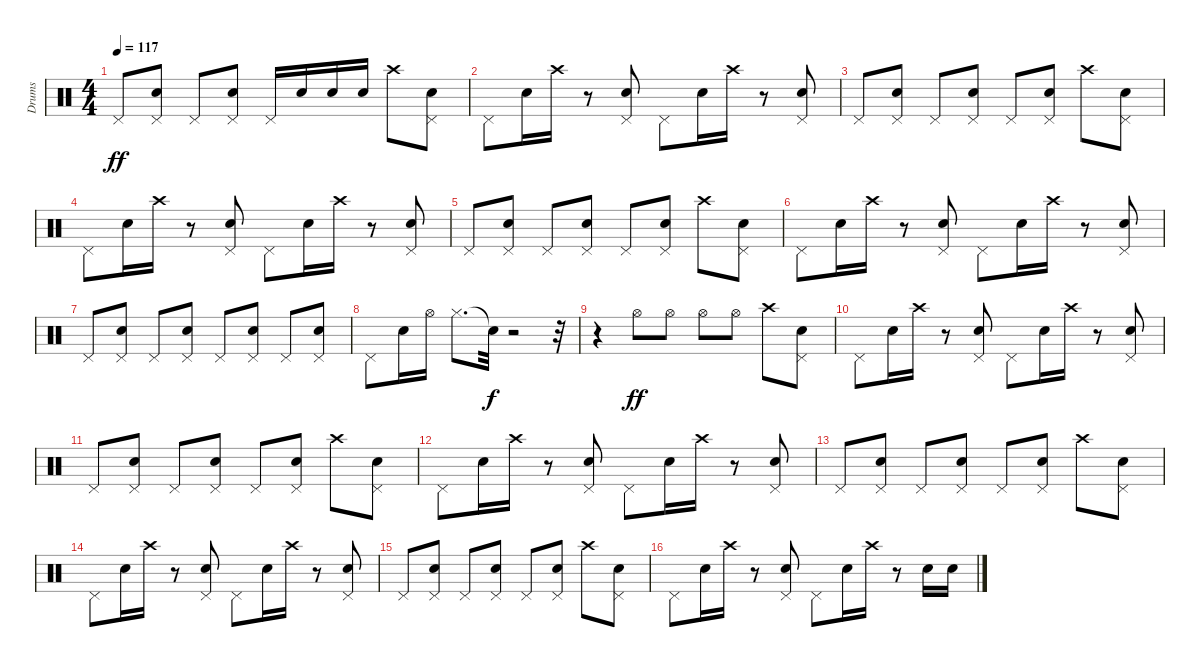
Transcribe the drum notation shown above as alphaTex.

\track ("Drums" "Drums") {instrument percussion}
\staff {score}
\articulation defaults
\ts (4 4)
\tempo 117
\clef neutral
\ks c "Pedal Hi-Hat (hit)".8{dy ff}
("Snare (hit) 2" "Pedal Hi-Hat (hit)").8 "Pedal Hi-Hat (hit)".8 ("Snare (hit) 2" "Pedal Hi-Hat (hit)").8 "Pedal Hi-Hat (hit)".16 "Snare (hit) 2".16 "Snare (hit) 2".16 "Snare (hit) 2".16 "Crash high (hit)".8 ("Snare (hit) 2" "Pedal Hi-Hat (hit)").8 |
"Pedal Hi-Hat (hit)".8 "Snare (hit) 2".16 "Crash high (hit)".16 r.8 ("Snare (hit) 2" "Pedal Hi-Hat (hit)").8 "Pedal Hi-Hat (hit)".8 "Snare (hit) 2".16 "Crash high (hit)".16 r.8 ("Snare (hit) 2" "Pedal Hi-Hat (hit)").8 |
"Pedal Hi-Hat (hit)".8 ("Snare (hit) 2" "Pedal Hi-Hat (hit)").8 "Pedal Hi-Hat (hit)".8 ("Snare (hit) 2" "Pedal Hi-Hat (hit)").8 "Pedal Hi-Hat (hit)".8 ("Snare (hit) 2" "Pedal Hi-Hat (hit)").8 "Crash high (hit)".8 ("Snare (hit) 2" "Pedal Hi-Hat (hit)").8 |
"Pedal Hi-Hat (hit)".8 "Snare (hit) 2".16 "Crash high (hit)".16 r.8 ("Snare (hit) 2" "Pedal Hi-Hat (hit)").8 "Pedal Hi-Hat (hit)".8 "Snare (hit) 2".16 "Crash high (hit)".16 r.8 ("Snare (hit) 2" "Pedal Hi-Hat (hit)").8 |
"Pedal Hi-Hat (hit)".8 ("Snare (hit) 2" "Pedal Hi-Hat (hit)").8 "Pedal Hi-Hat (hit)".8 ("Snare (hit) 2" "Pedal Hi-Hat (hit)").8 "Pedal Hi-Hat (hit)".8 ("Snare (hit) 2" "Pedal Hi-Hat (hit)").8 "Crash high (hit)".8 ("Snare (hit) 2" "Pedal Hi-Hat (hit)").8 |
"Pedal Hi-Hat (hit)".8 "Snare (hit) 2".16 "Crash high (hit)".16 r.8 ("Snare (hit) 2" "Pedal Hi-Hat (hit)").8 "Pedal Hi-Hat (hit)".8 "Snare (hit) 2".16 "Crash high (hit)".16 r.8 ("Snare (hit) 2" "Pedal Hi-Hat (hit)").8 |
"Pedal Hi-Hat (hit)".8 ("Snare (hit) 2" "Pedal Hi-Hat (hit)").8 "Pedal Hi-Hat (hit)".8 ("Snare (hit) 2" "Pedal Hi-Hat (hit)").8 "Pedal Hi-Hat (hit)".8 ("Snare (hit) 2" "Pedal Hi-Hat (hit)").8 "Pedal Hi-Hat (hit)".8 ("Snare (hit) 2" "Pedal Hi-Hat (hit)").8 |
"Pedal Hi-Hat (hit)".8 "Snare (hit) 2".16 "Hi-Hat (open)".16 "Hi-Hat (closed)".8{d} "Snare (hit)"{t}.32{dy f} r.2 r.32 |
r.4 "Hi-Hat (open)".8{dy ff} "Hi-Hat (open)".8 "Hi-Hat (open)".8 "Hi-Hat (open)".8 "Crash high (hit)".8 ("Snare (hit) 2" "Pedal Hi-Hat (hit)").8 |
"Pedal Hi-Hat (hit)".8 "Snare (hit) 2".16 "Crash high (hit)".16 r.8 ("Snare (hit) 2" "Pedal Hi-Hat (hit)").8 "Pedal Hi-Hat (hit)".8 "Snare (hit) 2".16 "Crash high (hit)".16 r.8 ("Snare (hit) 2" "Pedal Hi-Hat (hit)").8 |
"Pedal Hi-Hat (hit)".8 ("Snare (hit) 2" "Pedal Hi-Hat (hit)").8 "Pedal Hi-Hat (hit)".8 ("Snare (hit) 2" "Pedal Hi-Hat (hit)").8 "Pedal Hi-Hat (hit)".8 ("Snare (hit) 2" "Pedal Hi-Hat (hit)").8 "Crash high (hit)".8 ("Snare (hit) 2" "Pedal Hi-Hat (hit)").8 |
"Pedal Hi-Hat (hit)".8 "Snare (hit) 2".16 "Crash high (hit)".16 r.8 ("Snare (hit) 2" "Pedal Hi-Hat (hit)").8 "Pedal Hi-Hat (hit)".8 "Snare (hit) 2".16 "Crash high (hit)".16 r.8 ("Snare (hit) 2" "Pedal Hi-Hat (hit)").8 |
"Pedal Hi-Hat (hit)".8 ("Snare (hit) 2" "Pedal Hi-Hat (hit)").8 "Pedal Hi-Hat (hit)".8 ("Snare (hit) 2" "Pedal Hi-Hat (hit)").8 "Pedal Hi-Hat (hit)".8 ("Snare (hit) 2" "Pedal Hi-Hat (hit)").8 "Crash high (hit)".8 ("Snare (hit) 2" "Pedal Hi-Hat (hit)").8 |
"Pedal Hi-Hat (hit)".8 "Snare (hit) 2".16 "Crash high (hit)".16 r.8 ("Snare (hit) 2" "Pedal Hi-Hat (hit)").8 "Pedal Hi-Hat (hit)".8 "Snare (hit) 2".16 "Crash high (hit)".16 r.8 ("Snare (hit) 2" "Pedal Hi-Hat (hit)").8 |
"Pedal Hi-Hat (hit)".8 ("Snare (hit) 2" "Pedal Hi-Hat (hit)").8 "Pedal Hi-Hat (hit)".8 ("Snare (hit) 2" "Pedal Hi-Hat (hit)").8 "Pedal Hi-Hat (hit)".8 ("Snare (hit) 2" "Pedal Hi-Hat (hit)").8 "Crash high (hit)".8 ("Snare (hit) 2" "Pedal Hi-Hat (hit)").8 |
"Pedal Hi-Hat (hit)".8 "Snare (hit) 2".16 "Crash high (hit)".16 r.8 ("Snare (hit) 2" "Pedal Hi-Hat (hit)").8 "Pedal Hi-Hat (hit)".8 "Snare (hit) 2".16 "Crash high (hit)".16 r.8 "Snare (hit) 2".16 "Snare (hit) 2".16
